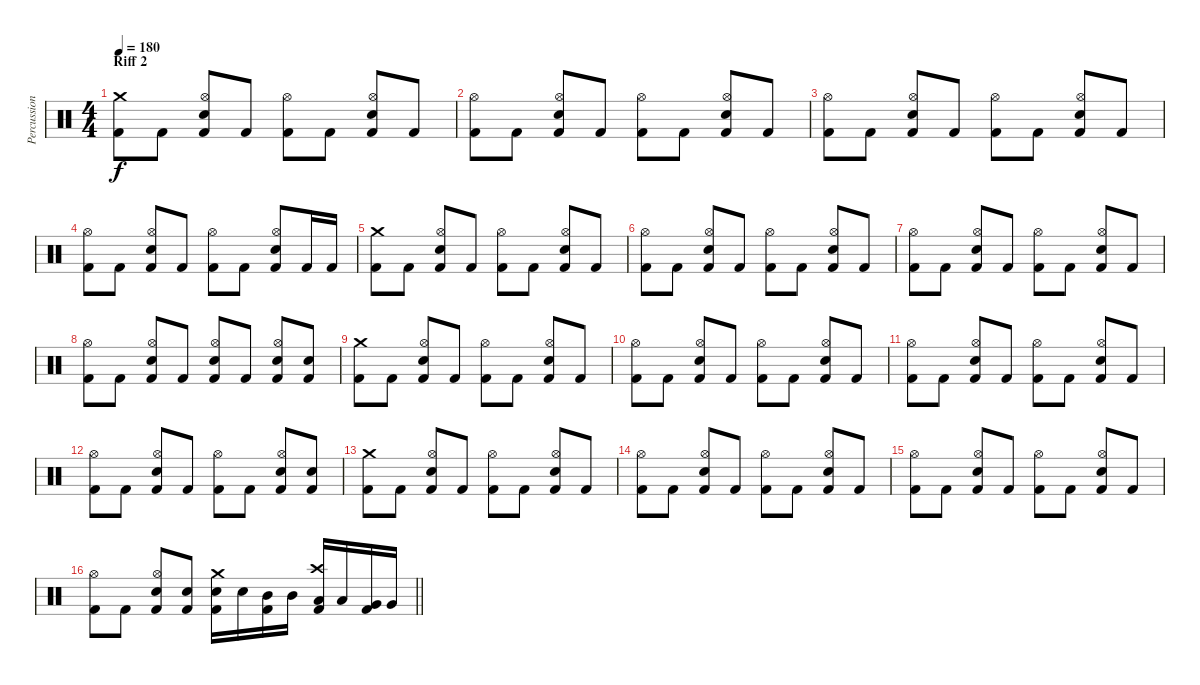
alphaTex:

\track ("Percussion" "Percussion") {instrument percussion}
\staff {score}
\articulation defaults
\ts (4 4)
\section ("" "Riff 2")
\tempo 180
\clef neutral
\ks c
("Crash medium (hit)" "Kick (hit) 2").8{dy f} "Kick (hit) 2".8 ("Kick (hit) 2" "Hi-Hat (open)" "Snare (hit) 2").8 "Kick (hit) 2".8 ("Hi-Hat (open)" "Kick (hit) 2").8 "Kick (hit) 2".8 ("Kick (hit) 2" "Hi-Hat (open)" "Snare (hit) 2").8 "Kick (hit) 2".8 |
("Hi-Hat (open)" "Kick (hit) 2").8 "Kick (hit) 2".8 ("Kick (hit) 2" "Hi-Hat (open)" "Snare (hit) 2").8 "Kick (hit) 2".8 ("Hi-Hat (open)" "Kick (hit) 2").8 "Kick (hit) 2".8 ("Kick (hit) 2" "Hi-Hat (open)" "Snare (hit) 2").8 "Kick (hit) 2".8 |
("Hi-Hat (open)" "Kick (hit) 2").8 "Kick (hit) 2".8 ("Kick (hit) 2" "Hi-Hat (open)" "Snare (hit) 2").8 "Kick (hit) 2".8 ("Hi-Hat (open)" "Kick (hit) 2").8 "Kick (hit) 2".8 ("Kick (hit) 2" "Hi-Hat (open)" "Snare (hit) 2").8 "Kick (hit) 2".8 |
("Hi-Hat (open)" "Kick (hit) 2").8 "Kick (hit) 2".8 ("Kick (hit) 2" "Hi-Hat (open)" "Snare (hit) 2").8 "Kick (hit) 2".8 ("Hi-Hat (open)" "Kick (hit) 2").8 "Kick (hit) 2".8 ("Kick (hit) 2" "Hi-Hat (open)" "Snare (hit) 2").8 "Kick (hit) 2".16 "Kick (hit) 2".16 |
("Crash medium (hit)" "Kick (hit) 2").8 "Kick (hit) 2".8 ("Kick (hit) 2" "Hi-Hat (open)" "Snare (hit) 2").8 "Kick (hit) 2".8 ("Hi-Hat (open)" "Kick (hit) 2").8 "Kick (hit) 2".8 ("Kick (hit) 2" "Hi-Hat (open)" "Snare (hit) 2").8 "Kick (hit) 2".8 |
("Hi-Hat (open)" "Kick (hit) 2").8 "Kick (hit) 2".8 ("Kick (hit) 2" "Hi-Hat (open)" "Snare (hit) 2").8 "Kick (hit) 2".8 ("Hi-Hat (open)" "Kick (hit) 2").8 "Kick (hit) 2".8 ("Kick (hit) 2" "Hi-Hat (open)" "Snare (hit) 2").8 "Kick (hit) 2".8 |
("Hi-Hat (open)" "Kick (hit) 2").8 "Kick (hit) 2".8 ("Kick (hit) 2" "Hi-Hat (open)" "Snare (hit) 2").8 "Kick (hit) 2".8 ("Hi-Hat (open)" "Kick (hit) 2").8 "Kick (hit) 2".8 ("Kick (hit) 2" "Hi-Hat (open)" "Snare (hit) 2").8 "Kick (hit) 2".8 |
("Hi-Hat (open)" "Kick (hit) 2").8 "Kick (hit) 2".8 ("Kick (hit) 2" "Hi-Hat (open)" "Snare (hit) 2").8 "Kick (hit) 2".8 ("Kick (hit) 2" "Hi-Hat (open)" "Snare (hit) 2").8 "Kick (hit) 2".8 ("Kick (hit) 2" "Hi-Hat (open)" "Snare (hit) 2").8 ("Kick (hit) 2" "Snare (hit) 2").8 |
("Crash medium (hit)" "Kick (hit) 2").8 "Kick (hit) 2".8 ("Kick (hit) 2" "Hi-Hat (open)" "Snare (hit) 2").8 "Kick (hit) 2".8 ("Hi-Hat (open)" "Kick (hit) 2").8 "Kick (hit) 2".8 ("Kick (hit) 2" "Hi-Hat (open)" "Snare (hit) 2").8 "Kick (hit) 2".8 |
("Hi-Hat (open)" "Kick (hit) 2").8 "Kick (hit) 2".8 ("Kick (hit) 2" "Hi-Hat (open)" "Snare (hit) 2").8 "Kick (hit) 2".8 ("Hi-Hat (open)" "Kick (hit) 2").8 "Kick (hit) 2".8 ("Kick (hit) 2" "Hi-Hat (open)" "Snare (hit) 2").8 "Kick (hit) 2".8 |
("Hi-Hat (open)" "Kick (hit) 2").8 "Kick (hit) 2".8 ("Kick (hit) 2" "Hi-Hat (open)" "Snare (hit) 2").8 "Kick (hit) 2".8 ("Hi-Hat (open)" "Kick (hit) 2").8 "Kick (hit) 2".8 ("Kick (hit) 2" "Hi-Hat (open)" "Snare (hit) 2").8 "Kick (hit) 2".8 |
("Hi-Hat (open)" "Kick (hit) 2").8 "Kick (hit) 2".8 ("Kick (hit) 2" "Hi-Hat (open)" "Snare (hit) 2").8 "Kick (hit) 2".8 ("Hi-Hat (open)" "Kick (hit) 2").8 "Kick (hit) 2".8 ("Kick (hit) 2" "Hi-Hat (open)" "Snare (hit) 2").8 ("Kick (hit) 2" "Snare (hit) 2").8 |
("Crash medium (hit)" "Kick (hit) 2").8 "Kick (hit) 2".8 ("Kick (hit) 2" "Hi-Hat (open)" "Snare (hit) 2").8 "Kick (hit) 2".8 ("Hi-Hat (open)" "Kick (hit) 2").8 "Kick (hit) 2".8 ("Kick (hit) 2" "Hi-Hat (open)" "Snare (hit) 2").8 "Kick (hit) 2".8 |
("Hi-Hat (open)" "Kick (hit) 2").8 "Kick (hit) 2".8 ("Kick (hit) 2" "Hi-Hat (open)" "Snare (hit) 2").8 "Kick (hit) 2".8 ("Hi-Hat (open)" "Kick (hit) 2").8 "Kick (hit) 2".8 ("Kick (hit) 2" "Hi-Hat (open)" "Snare (hit) 2").8 "Kick (hit) 2".8 |
("Hi-Hat (open)" "Kick (hit) 2").8 "Kick (hit) 2".8 ("Kick (hit) 2" "Hi-Hat (open)" "Snare (hit) 2").8 "Kick (hit) 2".8 ("Hi-Hat (open)" "Kick (hit) 2").8 "Kick (hit) 2".8 ("Kick (hit) 2" "Hi-Hat (open)" "Snare (hit) 2").8 "Kick (hit) 2".8 |
\barLineRight lightlight
("Hi-Hat (open)" "Kick (hit) 2").8 "Kick (hit) 2".8 ("Kick (hit) 2" "Hi-Hat (open)" "Snare (hit) 2").8 ("Kick (hit) 2" "Snare (hit) 2").8 ("Kick (hit) 2" "Crash medium (hit)" "Snare (hit) 2").16 "Snare (hit) 2".16 ("Kick (hit) 2" "Mid Tom (hit)").16 "Mid Tom (hit)".16 ("Kick (hit) 2" "Crash high (hit)" "Low Tom (hit)").16 "Low Tom (hit)".16 ("Kick (hit) 2" "Very Low Tom (hit)").16 "Very Low Tom (hit)".16
